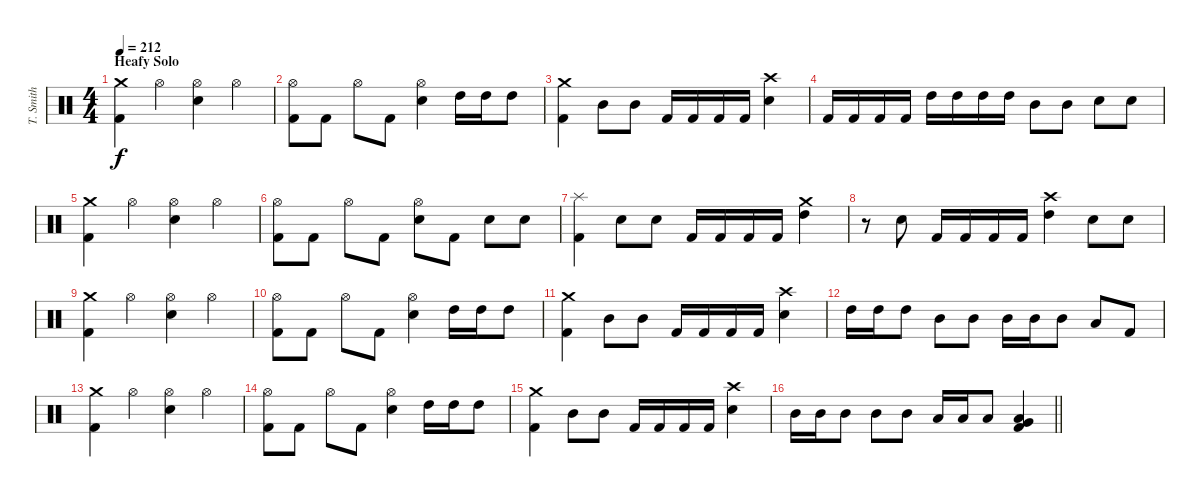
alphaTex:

\track ("T. Smith" "T. Smith") {instrument percussion}
\staff {score}
\articulation defaults
\ts (4 4)
\section ("" "Heafy Solo")
\tempo 212
\clef neutral
\ks c
("Crash medium (hit)" "Kick (hit) 2").4{dy f} "Hi-Hat (open)".4 ("Hi-Hat (open)" "Electric Snare (hit)").4 "Hi-Hat (open)".4 |
("Hi-Hat (open)" "Kick (hit) 2").8 "Kick (hit) 2".8 "Hi-Hat (open)".8 "Kick (hit) 2".8 ("Hi-Hat (open)" "Electric Snare (hit)").4 "High Tom (hit)".16 "High Tom (hit)".16 "High Tom (hit)".8 |
("Crash medium (hit)" "Kick (hit) 2").4 "Mid Tom (hit)".8 "Mid Tom (hit)".8 "Kick (hit) 2".16 "Kick (hit) 2".16 "Kick (hit) 2".16 "Kick (hit) 2".16 ("Crash high (hit)" "Electric Snare (hit)").4 |
"Kick (hit) 2".16 "Kick (hit) 2".16 "Kick (hit) 2".16 "Kick (hit) 2".16 "High Tom (hit)".16 "High Tom (hit)".16 "High Tom (hit)".16 "High Tom (hit)".16 "Mid Tom (hit)".8 "Mid Tom (hit)".8 "Electric Snare (hit)".8 "Electric Snare (hit)".8 |
("Crash medium (hit)" "Kick (hit) 2").4 "Hi-Hat (open)".4 ("Hi-Hat (open)" "Electric Snare (hit)").4 "Hi-Hat (open)".4 |
("Hi-Hat (open)" "Kick (hit) 2").8 "Kick (hit) 2".8 "Hi-Hat (open)".8 "Kick (hit) 2".8 ("Hi-Hat (open)" "Electric Snare (hit)").8 "Kick (hit) 2".8 "Electric Snare (hit)".8 "Electric Snare (hit)".8 |
("Splash (hit)" "Kick (hit) 2").4 "Electric Snare (hit)".8 "Electric Snare (hit)".8 "Kick (hit) 2".16 "Kick (hit) 2".16 "Kick (hit) 2".16 "Kick (hit) 2".16 ("Crash medium (hit)" "High Tom (hit)").4 |
r.8 "Electric Snare (hit)".8 "Kick (hit) 2".16 "Kick (hit) 2".16 "Kick (hit) 2".16 "Kick (hit) 2".16 ("Crash high (hit)" "High Tom (hit)").4 "Electric Snare (hit)".8 "Electric Snare (hit)".8 |
("Crash medium (hit)" "Kick (hit) 2").4 "Hi-Hat (open)".4 ("Hi-Hat (open)" "Electric Snare (hit)").4 "Hi-Hat (open)".4 |
("Hi-Hat (open)" "Kick (hit) 2").8 "Kick (hit) 2".8 "Hi-Hat (open)".8 "Kick (hit) 2".8 ("Hi-Hat (open)" "Electric Snare (hit)").4 "High Tom (hit)".16 "High Tom (hit)".16 "High Tom (hit)".8 |
("Crash medium (hit)" "Kick (hit) 2").4 "Mid Tom (hit)".8 "Mid Tom (hit)".8 "Kick (hit) 2".16 "Kick (hit) 2".16 "Kick (hit) 2".16 "Kick (hit) 2".16 ("Crash high (hit)" "Electric Snare (hit)").4 |
"High Tom (hit)".16 "High Tom (hit)".16 "High Tom (hit)".8 "Mid Tom (hit)".8 "Mid Tom (hit)".8 "Mid Tom (hit)".16 "Mid Tom (hit)".16 "Mid Tom (hit)".8 "Low Tom (hit)".8 "Kick (hit) 2".8 |
("Crash medium (hit)" "Kick (hit) 2").4 "Hi-Hat (open)".4 ("Hi-Hat (open)" "Electric Snare (hit)").4 "Hi-Hat (open)".4 |
("Hi-Hat (open)" "Kick (hit) 2").8 "Kick (hit) 2".8 "Hi-Hat (open)".8 "Kick (hit) 2".8 ("Hi-Hat (open)" "Electric Snare (hit)").4 "High Tom (hit)".16 "High Tom (hit)".16 "High Tom (hit)".8 |
("Crash medium (hit)" "Kick (hit) 2").4 "Mid Tom (hit)".8 "Mid Tom (hit)".8 "Kick (hit) 2".16 "Kick (hit) 2".16 "Kick (hit) 2".16 "Kick (hit) 2".16 ("Crash high (hit)" "Electric Snare (hit)").4 |
\barLineRight lightlight "Mid Tom (hit)".16 "Mid Tom (hit)".16 "Mid Tom (hit)".8 "Mid Tom (hit)".8 "Mid Tom (hit)".8 "Low Tom (hit)".16 "Low Tom (hit)".16 "Low Tom (hit)".8
("Low Tom (hit)" "Very Low Tom (hit)" "Kick (hit) 2").4
